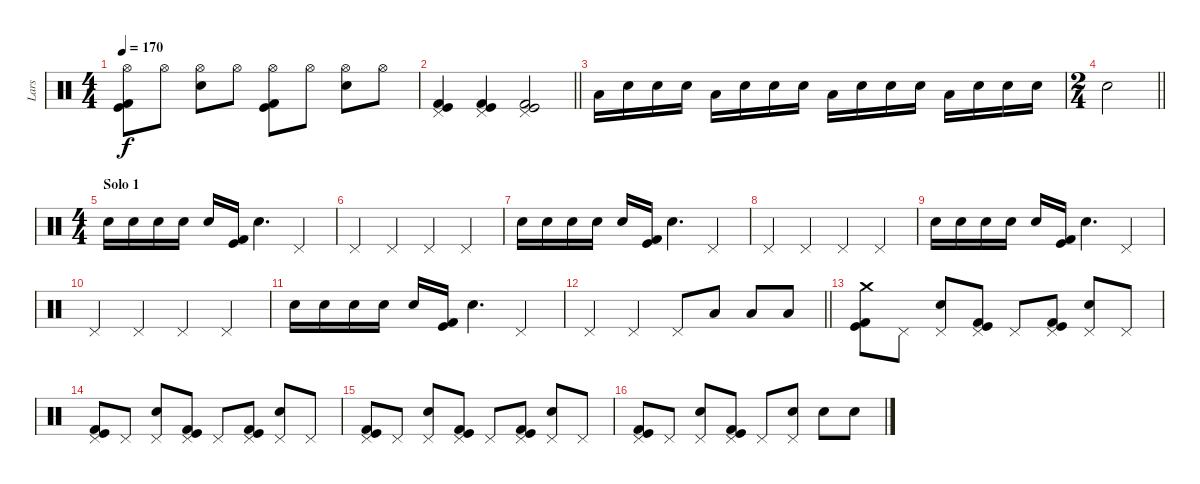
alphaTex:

\track ("Lars" "Lars") {instrument percussion}
\staff {score}
\articulation defaults
\ts (4 4)
\tempo 170
\clef neutral
\ks c
("Hi-Hat (open)" "Kick (hit)" "Kick (hit) 2").8{dy f} "Hi-Hat (open)".8 ("Hi-Hat (open)" "Electric Snare (hit)").8 "Hi-Hat (open)".8 ("Hi-Hat (open)" "Kick (hit)" "Kick (hit) 2").8 "Hi-Hat (open)".8 ("Hi-Hat (open)" "Electric Snare (hit)").8 "Hi-Hat (open)".8 |
\barLineRight lightlight
("Pedal Hi-Hat (hit)" "Kick (hit)" "Kick (hit) 2").4 ("Pedal Hi-Hat (hit)" "Kick (hit)" "Kick (hit) 2").4 ("Pedal Hi-Hat (hit)" "Kick (hit)" "Kick (hit) 2").2 |
\section ("" "")
"Low Tom (hit)".16 "Electric Snare (hit)".16 "Electric Snare (hit)".16 "Electric Snare (hit)".16 "Low Tom (hit)".16 "Electric Snare (hit)".16 "Electric Snare (hit)".16 "Electric Snare (hit)".16 "Low Tom (hit)".16 "Electric Snare (hit)".16 "Electric Snare (hit)".16 "Electric Snare (hit)".16 "Low Tom (hit)".16 "Electric Snare (hit)".16 "Electric Snare (hit)".16 "Electric Snare (hit)".16 |
\ts (2 4)
\barLineRight lightlight "Electric Snare (hit)".2
|
\ts (4 4)
\section ("" "Solo 1")
"Electric Snare (hit)".16 "Electric Snare (hit)".16 "Electric Snare (hit)".16 "Electric Snare (hit)".16 "Electric Snare (hit)".16 ("Kick (hit)" "Kick (hit) 2").16 "Electric Snare (hit)".4{d} "Pedal Hi-Hat (hit)".4 |
"Pedal Hi-Hat (hit)".4 "Pedal Hi-Hat (hit)".4 "Pedal Hi-Hat (hit)".4 "Pedal Hi-Hat (hit)".4 |
"Electric Snare (hit)".16 "Electric Snare (hit)".16 "Electric Snare (hit)".16 "Electric Snare (hit)".16 "Electric Snare (hit)".16 ("Kick (hit)" "Kick (hit) 2").16 "Electric Snare (hit)".4{d} "Pedal Hi-Hat (hit)".4 |
"Pedal Hi-Hat (hit)".4 "Pedal Hi-Hat (hit)".4 "Pedal Hi-Hat (hit)".4 "Pedal Hi-Hat (hit)".4 |
"Electric Snare (hit)".16 "Electric Snare (hit)".16 "Electric Snare (hit)".16 "Electric Snare (hit)".16 "Electric Snare (hit)".16 ("Kick (hit)" "Kick (hit) 2").16 "Electric Snare (hit)".4{d} "Pedal Hi-Hat (hit)".4 |
"Pedal Hi-Hat (hit)".4 "Pedal Hi-Hat (hit)".4 "Pedal Hi-Hat (hit)".4 "Pedal Hi-Hat (hit)".4 |
"Electric Snare (hit)".16 "Electric Snare (hit)".16 "Electric Snare (hit)".16 "Electric Snare (hit)".16 "Electric Snare (hit)".16 ("Kick (hit)" "Kick (hit) 2").16 "Electric Snare (hit)".4{d} "Pedal Hi-Hat (hit)".4 |
\barLineRight lightlight "Pedal Hi-Hat (hit)".4 "Pedal Hi-Hat (hit)".4 "Pedal Hi-Hat (hit)".8 "Low Tom (hit)".8 "Low Tom (hit)".8 "Low Tom (hit)".8
|
\section ("" "")
("Crash medium (hit)" "Kick (hit)" "Kick (hit) 2").8 "Pedal Hi-Hat (hit)".8 ("Pedal Hi-Hat (hit)" "Electric Snare (hit)").8 ("Pedal Hi-Hat (hit)" "Kick (hit)" "Kick (hit) 2").8 "Pedal Hi-Hat (hit)".8 ("Pedal Hi-Hat (hit)" "Kick (hit)" "Kick (hit) 2").8 ("Pedal Hi-Hat (hit)" "Electric Snare (hit)").8 "Pedal Hi-Hat (hit)".8 |
("Pedal Hi-Hat (hit)" "Kick (hit)" "Kick (hit) 2").8 "Pedal Hi-Hat (hit)".8 ("Pedal Hi-Hat (hit)" "Electric Snare (hit)").8 ("Pedal Hi-Hat (hit)" "Kick (hit)" "Kick (hit) 2").8 "Pedal Hi-Hat (hit)".8 ("Pedal Hi-Hat (hit)" "Kick (hit)" "Kick (hit) 2").8 ("Pedal Hi-Hat (hit)" "Electric Snare (hit)").8 "Pedal Hi-Hat (hit)".8 |
("Pedal Hi-Hat (hit)" "Kick (hit)" "Kick (hit) 2").8 "Pedal Hi-Hat (hit)".8 ("Pedal Hi-Hat (hit)" "Electric Snare (hit)").8 ("Pedal Hi-Hat (hit)" "Kick (hit)" "Kick (hit) 2").8 "Pedal Hi-Hat (hit)".8 ("Pedal Hi-Hat (hit)" "Kick (hit)" "Kick (hit) 2").8 ("Pedal Hi-Hat (hit)" "Electric Snare (hit)").8 "Pedal Hi-Hat (hit)".8 |
("Pedal Hi-Hat (hit)" "Kick (hit)" "Kick (hit) 2").8 "Pedal Hi-Hat (hit)".8 ("Pedal Hi-Hat (hit)" "Electric Snare (hit)").8 ("Pedal Hi-Hat (hit)" "Kick (hit)" "Kick (hit) 2").8 "Pedal Hi-Hat (hit)".8 ("Pedal Hi-Hat (hit)" "Electric Snare (hit)").8 "Electric Snare (hit)".8 "Electric Snare (hit)".8
